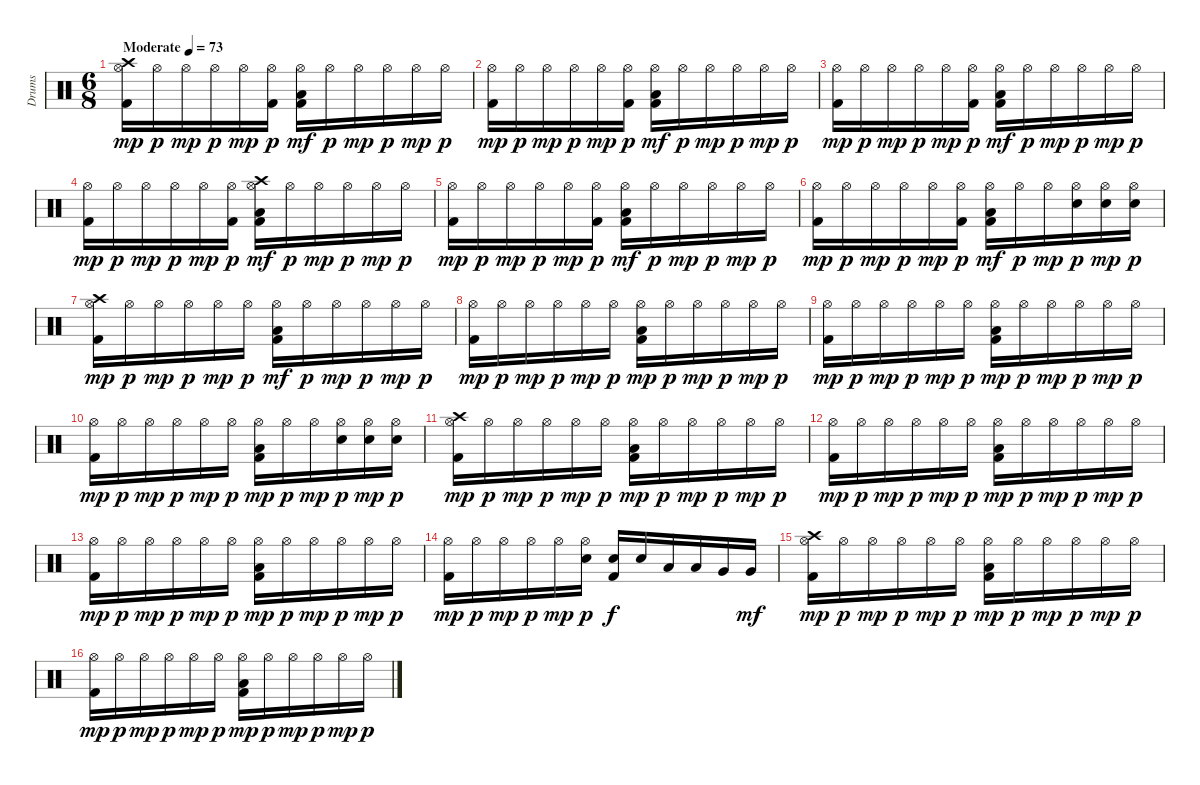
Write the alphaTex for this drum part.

\track ("Drums" "Drums") {instrument percussion}
\staff {score}
\articulation defaults
\ts (6 8)
\tempo (73 "Moderate")
\clef neutral
\ks c
("Crash high (hit)" "Hi-Hat (open)" "Kick (hit) 2").16{dy mp} "Hi-Hat (open)".16{dy p} "Hi-Hat (open)".16{dy mp} "Hi-Hat (open)".16{dy p} "Hi-Hat (open)".16{dy mp} ("Kick (hit) 2" "Hi-Hat (open)").16{dy p} ("Hi-Hat (open)" "Low Floor Tom (hit)" "Kick (hit) 2").16{dy mf} "Hi-Hat (open)".16{dy p} "Hi-Hat (open)".16{dy mp} "Hi-Hat (open)".16{dy p} "Hi-Hat (open)".16{dy mp} "Hi-Hat (open)".16{dy p} |
("Hi-Hat (open)" "Kick (hit) 2").16{dy mp} "Hi-Hat (open)".16{dy p} "Hi-Hat (open)".16{dy mp} "Hi-Hat (open)".16{dy p} "Hi-Hat (open)".16{dy mp} ("Kick (hit) 2" "Hi-Hat (open)").16{dy p} ("Hi-Hat (open)" "Low Floor Tom (hit)" "Kick (hit) 2").16{dy mf} "Hi-Hat (open)".16{dy p} "Hi-Hat (open)".16{dy mp} "Hi-Hat (open)".16{dy p} "Hi-Hat (open)".16{dy mp} "Hi-Hat (open)".16{dy p} |
("Hi-Hat (open)" "Kick (hit) 2").16{dy mp} "Hi-Hat (open)".16{dy p} "Hi-Hat (open)".16{dy mp} "Hi-Hat (open)".16{dy p} "Hi-Hat (open)".16{dy mp} ("Kick (hit) 2" "Hi-Hat (open)").16{dy p} ("Hi-Hat (open)" "Low Floor Tom (hit)" "Kick (hit) 2").16{dy mf} "Hi-Hat (open)".16{dy p} "Hi-Hat (open)".16{dy mp} "Hi-Hat (open)".16{dy p} "Hi-Hat (open)".16{dy mp} "Hi-Hat (open)".16{dy p} |
("Hi-Hat (open)" "Kick (hit) 2").16{dy mp} "Hi-Hat (open)".16{dy p} "Hi-Hat (open)".16{dy mp} "Hi-Hat (open)".16{dy p} "Hi-Hat (open)".16{dy mp} ("Kick (hit) 2" "Hi-Hat (open)").16{dy p} ("Hi-Hat (open)" "Crash high (hit)" "Low Floor Tom (hit)" "Kick (hit) 2").16{dy mf} "Hi-Hat (open)".16{dy p} "Hi-Hat (open)".16{dy mp} "Hi-Hat (open)".16{dy p} "Hi-Hat (open)".16{dy mp} "Hi-Hat (open)".16{dy p} |
("Hi-Hat (open)" "Kick (hit) 2").16{dy mp} "Hi-Hat (open)".16{dy p} "Hi-Hat (open)".16{dy mp} "Hi-Hat (open)".16{dy p} "Hi-Hat (open)".16{dy mp} ("Kick (hit) 2" "Hi-Hat (open)").16{dy p} ("Hi-Hat (open)" "Low Floor Tom (hit)" "Kick (hit) 2").16{dy mf} "Hi-Hat (open)".16{dy p} "Hi-Hat (open)".16{dy mp} "Hi-Hat (open)".16{dy p} "Hi-Hat (open)".16{dy mp} "Hi-Hat (open)".16{dy p} |
("Hi-Hat (open)" "Kick (hit) 2").16{dy mp} "Hi-Hat (open)".16{dy p} "Hi-Hat (open)".16{dy mp} "Hi-Hat (open)".16{dy p} "Hi-Hat (open)".16{dy mp} ("Kick (hit) 2" "Hi-Hat (open)").16{dy p} ("Hi-Hat (open)" "Low Floor Tom (hit)" "Kick (hit) 2").16{dy mf} "Hi-Hat (open)".16{dy p} "Hi-Hat (open)".16{dy mp} ("Snare (hit) 2" "Hi-Hat (open)").16{dy p} ("Snare (hit) 2" "Hi-Hat (open)").16{dy mp} ("Snare (hit) 2" "Hi-Hat (open)").16{dy p} |
("Hi-Hat (open)" "Crash high (hit)" "Kick (hit) 2").16{dy mp} "Hi-Hat (open)".16{dy p} "Hi-Hat (open)".16{dy mp} "Hi-Hat (open)".16{dy p} "Hi-Hat (open)".16{dy mp} "Hi-Hat (open)".16{dy p} ("Hi-Hat (open)" "Low Floor Tom (hit)" "Kick (hit) 2").16{dy mf} "Hi-Hat (open)".16{dy p} "Hi-Hat (open)".16{dy mp} "Hi-Hat (open)".16{dy p} "Hi-Hat (open)".16{dy mp} "Hi-Hat (open)".16{dy p} |
("Hi-Hat (open)" "Kick (hit) 2").16{dy mp} "Hi-Hat (open)".16{dy p} "Hi-Hat (open)".16{dy mp} "Hi-Hat (open)".16{dy p} "Hi-Hat (open)".16{dy mp} "Hi-Hat (open)".16{dy p} ("Kick (hit) 2" "Low Floor Tom (hit)" "Hi-Hat (open)").16{dy mp} "Hi-Hat (open)".16{dy p} "Hi-Hat (open)".16{dy mp} "Hi-Hat (open)".16{dy p} "Hi-Hat (open)".16{dy mp} "Hi-Hat (open)".16{dy p} |
("Kick (hit) 2" "Hi-Hat (open)").16{dy mp} "Hi-Hat (open)".16{dy p} "Hi-Hat (open)".16{dy mp} "Hi-Hat (open)".16{dy p} "Hi-Hat (open)".16{dy mp} "Hi-Hat (open)".16{dy p} ("Kick (hit) 2" "Low Floor Tom (hit)" "Hi-Hat (open)").16{dy mp} "Hi-Hat (open)".16{dy p} "Hi-Hat (open)".16{dy mp} "Hi-Hat (open)".16{dy p} "Hi-Hat (open)".16{dy mp} "Hi-Hat (open)".16{dy p} |
("Kick (hit) 2" "Hi-Hat (open)").16{dy mp} "Hi-Hat (open)".16{dy p} "Hi-Hat (open)".16{dy mp} "Hi-Hat (open)".16{dy p} "Hi-Hat (open)".16{dy mp} "Hi-Hat (open)".16{dy p} ("Low Floor Tom (hit)" "Kick (hit) 2" "Hi-Hat (open)").16{dy mp} "Hi-Hat (open)".16{dy p} "Hi-Hat (open)".16{dy mp} ("Snare (hit) 2" "Hi-Hat (open)").16{dy p} ("Snare (hit) 2" "Hi-Hat (open)").16{dy mp} ("Snare (hit) 2" "Hi-Hat (open)").16{dy p} |
("Crash high (hit)" "Kick (hit) 2" "Hi-Hat (open)").16{dy mp} "Hi-Hat (open)".16{dy p} "Hi-Hat (open)".16{dy mp} "Hi-Hat (open)".16{dy p} "Hi-Hat (open)".16{dy mp} "Hi-Hat (open)".16{dy p} ("Low Floor Tom (hit)" "Kick (hit) 2" "Hi-Hat (open)").16{dy mp} "Hi-Hat (open)".16{dy p} "Hi-Hat (open)".16{dy mp} "Hi-Hat (open)".16{dy p} "Hi-Hat (open)".16{dy mp} "Hi-Hat (open)".16{dy p} |
("Kick (hit) 2" "Hi-Hat (open)").16{dy mp} "Hi-Hat (open)".16{dy p} "Hi-Hat (open)".16{dy mp} "Hi-Hat (open)".16{dy p} "Hi-Hat (open)".16{dy mp} "Hi-Hat (open)".16{dy p} ("Kick (hit) 2" "Low Floor Tom (hit)" "Hi-Hat (open)").16{dy mp} "Hi-Hat (open)".16{dy p} "Hi-Hat (open)".16{dy mp} "Hi-Hat (open)".16{dy p} "Hi-Hat (open)".16{dy mp} "Hi-Hat (open)".16{dy p} |
("Kick (hit) 2" "Hi-Hat (open)").16{dy mp} "Hi-Hat (open)".16{dy p} "Hi-Hat (open)".16{dy mp} "Hi-Hat (open)".16{dy p} "Hi-Hat (open)".16{dy mp} "Hi-Hat (open)".16{dy p} ("Kick (hit) 2" "Low Floor Tom (hit)" "Hi-Hat (open)").16{dy mp} "Hi-Hat (open)".16{dy p} "Hi-Hat (open)".16{dy mp} "Hi-Hat (open)".16{dy p} "Hi-Hat (open)".16{dy mp} "Hi-Hat (open)".16{dy p} |
("Kick (hit) 2" "Hi-Hat (open)").16{dy mp} "Hi-Hat (open)".16{dy p} "Hi-Hat (open)".16{dy mp} "Hi-Hat (open)".16{dy p} "Hi-Hat (open)".16{dy mp} ("Snare (hit) 2" "Hi-Hat (open)").16{dy p} ("Kick (hit) 2" "Snare (hit) 2").16{dy f} "Snare (hit) 2".16 "Low Tom (hit)".16 "Low Tom (hit)".16 "Very Low Tom (hit)".16 "Very Low Tom (hit)".16{dy mf} |
("Crash high (hit)" "Kick (hit) 2" "Hi-Hat (open)").16{dy mp} "Hi-Hat (open)".16{dy p} "Hi-Hat (open)".16{dy mp} "Hi-Hat (open)".16{dy p} "Hi-Hat (open)".16{dy mp} "Hi-Hat (open)".16{dy p} ("Low Floor Tom (hit)" "Kick (hit) 2" "Hi-Hat (open)").16{dy mp} "Hi-Hat (open)".16{dy p} "Hi-Hat (open)".16{dy mp} "Hi-Hat (open)".16{dy p} "Hi-Hat (open)".16{dy mp} "Hi-Hat (open)".16{dy p} |
("Kick (hit) 2" "Hi-Hat (open)").16{dy mp} "Hi-Hat (open)".16{dy p} "Hi-Hat (open)".16{dy mp} "Hi-Hat (open)".16{dy p} "Hi-Hat (open)".16{dy mp} "Hi-Hat (open)".16{dy p} ("Kick (hit) 2" "Low Floor Tom (hit)" "Hi-Hat (open)").16{dy mp} "Hi-Hat (open)".16{dy p} "Hi-Hat (open)".16{dy mp} "Hi-Hat (open)".16{dy p} "Hi-Hat (open)".16{dy mp} "Hi-Hat (open)".16{dy p}
